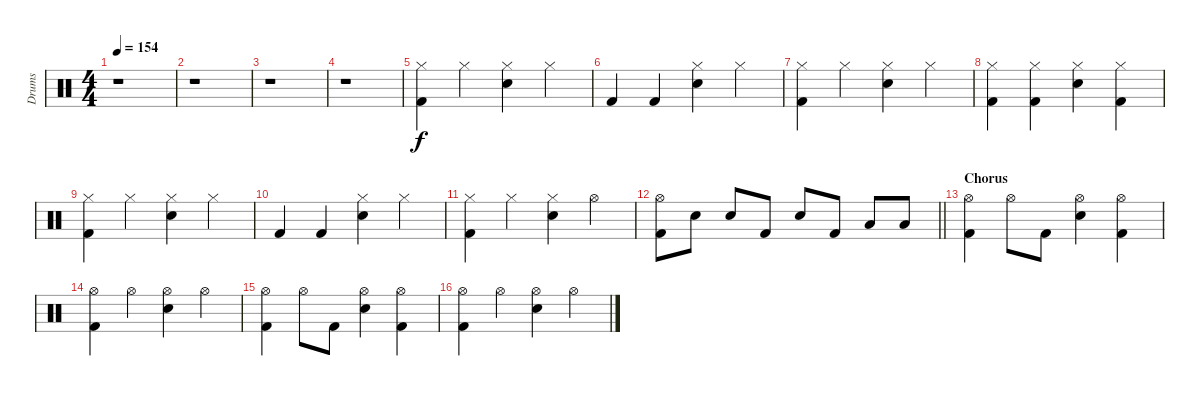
\track ("Drums" "Drums") {instrument percussion}
\staff {score}
\articulation defaults
\ts (4 4)
\tempo 154
\clef neutral
\ks c
r.1{dy f} |
r.1 |
r.1 |
r.1 |
("Hi-Hat (closed)" "Kick (hit) 2").4 "Hi-Hat (closed)".4 ("Hi-Hat (closed)" "Snare (hit) 2").4 "Hi-Hat (closed)".4 |
"Kick (hit) 2".4 "Kick (hit) 2".4 ("Hi-Hat (closed)" "Snare (hit) 2").4 "Hi-Hat (closed)".4 |
("Hi-Hat (closed)" "Kick (hit) 2").4 "Hi-Hat (closed)".4 ("Hi-Hat (closed)" "Snare (hit) 2").4 "Hi-Hat (closed)".4 |
("Hi-Hat (closed)" "Kick (hit) 2").4 ("Hi-Hat (closed)" "Kick (hit) 2").4 ("Hi-Hat (closed)" "Snare (hit) 2").4 ("Hi-Hat (closed)" "Kick (hit) 2").4 |
("Hi-Hat (closed)" "Kick (hit) 2").4 "Hi-Hat (closed)".4 ("Hi-Hat (closed)" "Snare (hit) 2").4 "Hi-Hat (closed)".4 |
"Kick (hit) 2".4 "Kick (hit) 2".4 ("Hi-Hat (closed)" "Snare (hit) 2").4 "Hi-Hat (closed)".4 |
("Hi-Hat (closed)" "Kick (hit) 2").4 "Hi-Hat (closed)".4 ("Hi-Hat (closed)" "Snare (hit) 2").4 "Hi-Hat (open)".4 |
\barLineRight lightlight
("Hi-Hat (open)" "Kick (hit) 2").8 "Snare (hit) 2".8 "Snare (hit) 2".8 "Kick (hit) 2".8 "Snare (hit) 2".8 "Kick (hit) 2".8 "Low Tom (hit)".8 "Low Tom (hit)".8 |
\section ("" "Chorus")
("Hi-Hat (open)" "Kick (hit) 2").4 "Hi-Hat (open)".8 "Kick (hit) 2".8 ("Hi-Hat (open)" "Snare (hit) 2").4 ("Hi-Hat (open)" "Kick (hit) 2").4 |
("Hi-Hat (open)" "Kick (hit) 2").4 "Hi-Hat (open)".4 ("Hi-Hat (open)" "Snare (hit) 2").4 "Hi-Hat (open)".4 |
("Hi-Hat (open)" "Kick (hit) 2").4 "Hi-Hat (open)".8 "Kick (hit) 2".8 ("Hi-Hat (open)" "Snare (hit) 2").4 ("Hi-Hat (open)" "Kick (hit) 2").4 |
("Hi-Hat (open)" "Kick (hit) 2").4 "Hi-Hat (open)".4 ("Hi-Hat (open)" "Snare (hit) 2").4 "Hi-Hat (open)".4
